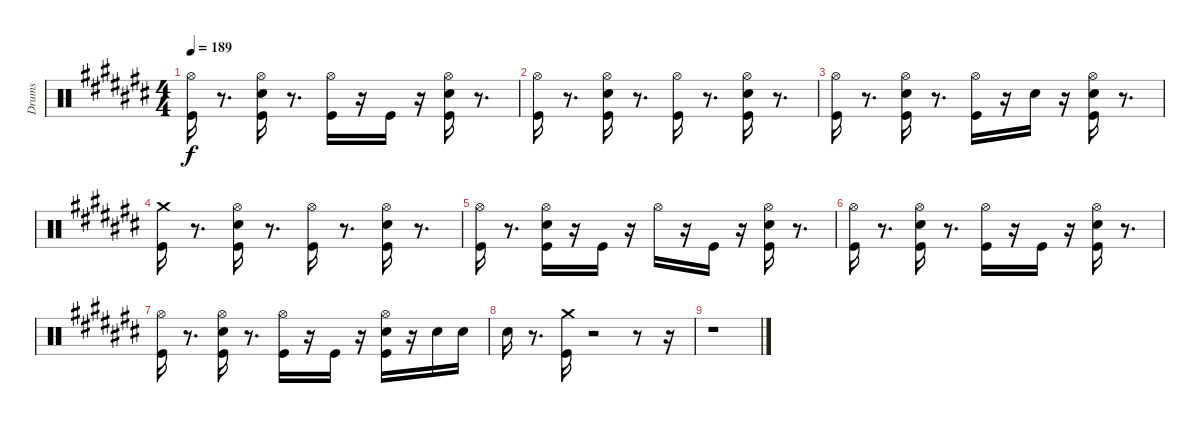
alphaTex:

\track ("Drums" "Drums") {instrument percussion}
\staff {score}
\articulation defaults
\ts (4 4)
\tempo 189
\clef neutral
\ks a#minor
("Hi-Hat (open)" "Kick (hit)").16{dy f} r.8{d} ("Hi-Hat (open)" "Electric Snare (hit)" "Kick (hit)").16 r.8{d} ("Hi-Hat (open)" "Kick (hit)").16 r.16 "Kick (hit)".16 r.16 ("Hi-Hat (open)" "Electric Snare (hit)" "Kick (hit)").16 r.8{d} |
\ks c#
("Hi-Hat (open)" "Kick (hit)").16 r.8{d} ("Hi-Hat (open)" "Electric Snare (hit)" "Kick (hit)").16 r.8{d} ("Hi-Hat (open)" "Kick (hit)").16 r.8{d} ("Hi-Hat (open)" "Electric Snare (hit)" "Kick (hit)").16 r.8{d} |
\ks a#minor
("Hi-Hat (open)" "Kick (hit)").16 r.8{d} ("Hi-Hat (open)" "Electric Snare (hit)" "Kick (hit)").16 r.8{d} ("Hi-Hat (open)" "Kick (hit)").16 r.16 "Electric Snare (hit)".16 r.16 ("Hi-Hat (open)" "Electric Snare (hit)" "Kick (hit)").16 r.8{d} |
\ks c#
("Crash medium (hit)" "Kick (hit)").16 r.8{d} ("Hi-Hat (open)" "Electric Snare (hit)" "Kick (hit)").16 r.8{d} ("Hi-Hat (open)" "Kick (hit)").16 r.8{d} ("Hi-Hat (open)" "Electric Snare (hit)" "Kick (hit)").16 r.8{d} |
\ks a#minor
("Hi-Hat (open)" "Kick (hit)").16 r.8{d} ("Hi-Hat (open)" "Electric Snare (hit)" "Kick (hit)").16 r.16 "Kick (hit)".16 r.16 "Hi-Hat (open)".16 r.16 "Kick (hit)".16 r.16 ("Hi-Hat (open)" "Electric Snare (hit)" "Kick (hit)").16 r.8{d} |
("Hi-Hat (open)" "Kick (hit)").16 r.8{d} ("Hi-Hat (open)" "Electric Snare (hit)" "Kick (hit)").16 r.8{d} ("Hi-Hat (open)" "Kick (hit)").16 r.16 "Kick (hit)".16 r.16 ("Hi-Hat (open)" "Electric Snare (hit)" "Kick (hit)").16 r.8{d} |
("Hi-Hat (open)" "Kick (hit)").16 r.8{d} ("Hi-Hat (open)" "Electric Snare (hit)" "Kick (hit)").16 r.8{d} ("Hi-Hat (open)" "Kick (hit)").16 r.16 "Kick (hit)".16 r.16 ("Hi-Hat (open)" "Electric Snare (hit)" "Kick (hit)").16 r.16 "Electric Snare (hit)".16 "Electric Snare (hit)".16 |
"Electric Snare (hit)".16 r.8{d} ("Crash medium (hit)" "Kick (hit)").16 r.2 r.8 r.16 |
\ks c#
r.1
